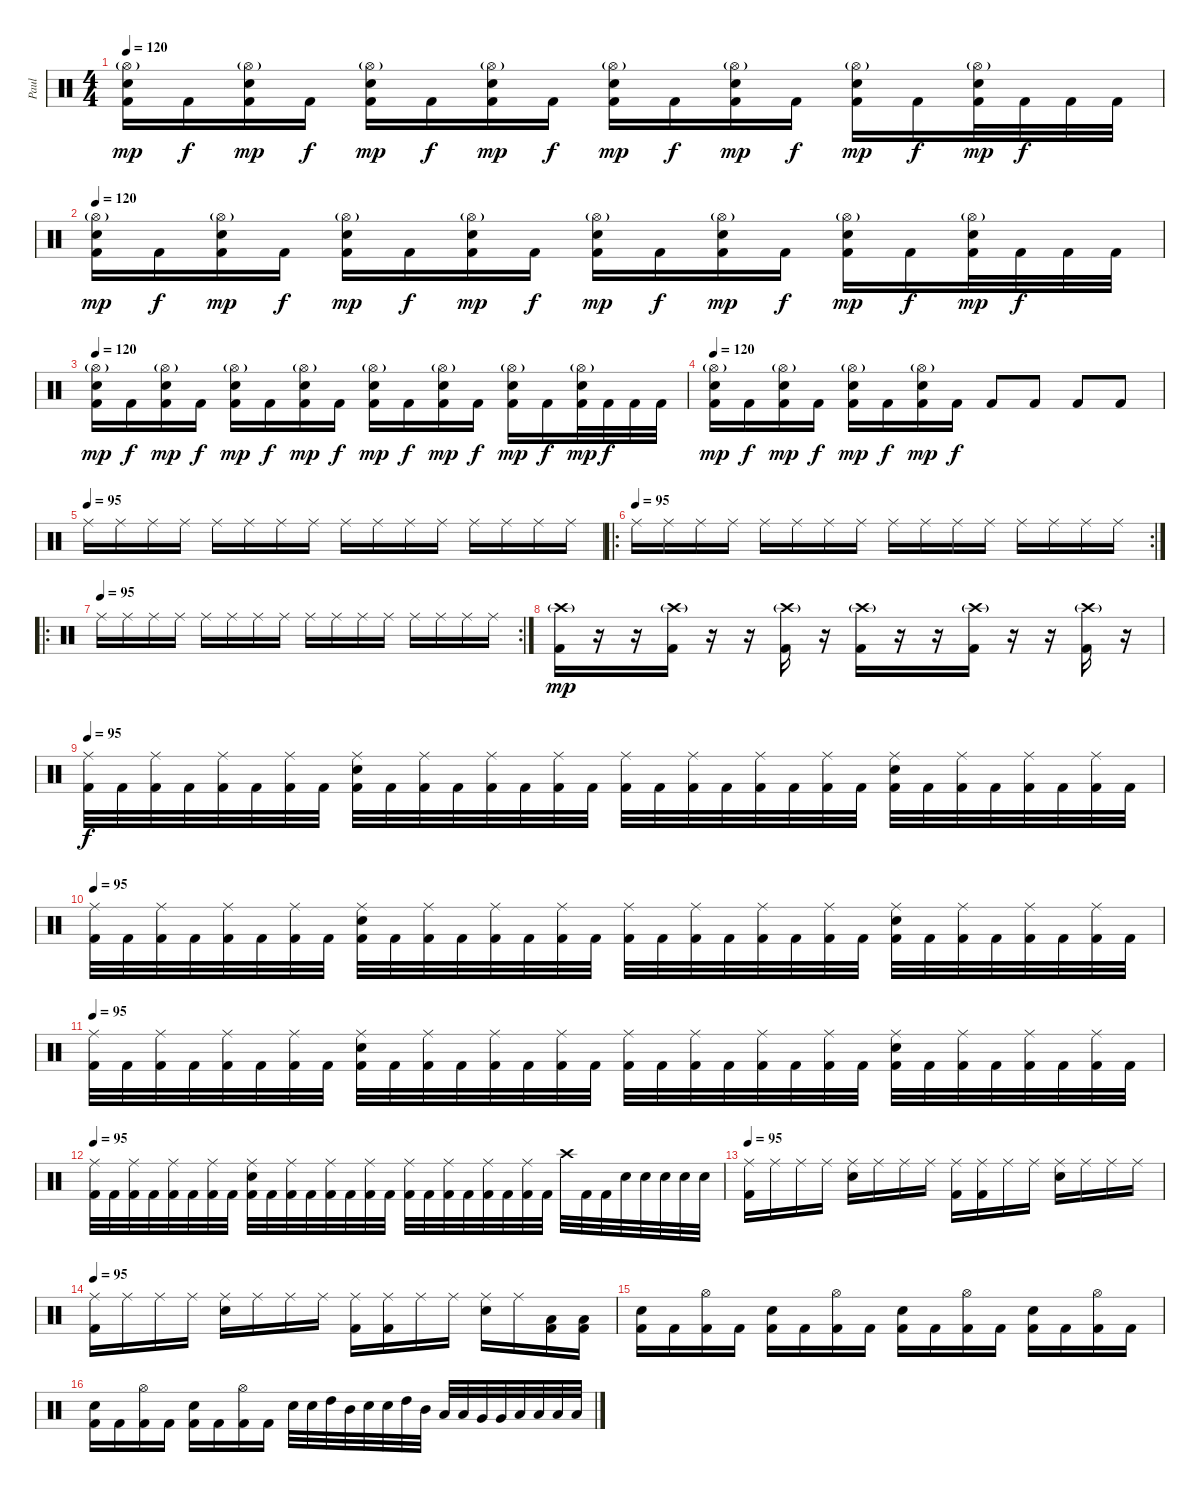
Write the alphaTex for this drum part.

\track ("Paul" "Paul") {instrument percussion}
\staff {score}
\articulation defaults
\ts (4 4)
\tempo 120
\clef neutral
\ks c
("Hi-Hat (open)"{g} "Electric Snare (hit)" "Kick (hit) 2").16{dy mp} "Kick (hit) 2".16{dy f} ("Hi-Hat (open)"{g} "Electric Snare (hit)" "Kick (hit) 2").16{dy mp} "Kick (hit) 2".16{dy f} ("Hi-Hat (open)"{g} "Electric Snare (hit)" "Kick (hit) 2").16{dy mp} "Kick (hit) 2".16{dy f} ("Hi-Hat (open)"{g} "Electric Snare (hit)" "Kick (hit) 2").16{dy mp} "Kick (hit) 2".16{dy f} ("Hi-Hat (open)"{g} "Electric Snare (hit)" "Kick (hit) 2").16{dy mp} "Kick (hit) 2".16{dy f} ("Hi-Hat (open)"{g} "Electric Snare (hit)" "Kick (hit) 2").16{dy mp} "Kick (hit) 2".16{dy f} ("Hi-Hat (open)"{g} "Electric Snare (hit)" "Kick (hit) 2").16{dy mp} "Kick (hit) 2".16{dy f} ("Hi-Hat (open)"{g} "Electric Snare (hit)" "Kick (hit) 2").32{dy mp} "Kick (hit) 2".32{dy f} "Kick (hit) 2".32 "Kick (hit) 2".32 |
\tempo 120
("Hi-Hat (open)"{g} "Electric Snare (hit)" "Kick (hit) 2").16{dy mp} "Kick (hit) 2".16{dy f} ("Hi-Hat (open)"{g} "Electric Snare (hit)" "Kick (hit) 2").16{dy mp} "Kick (hit) 2".16{dy f} ("Hi-Hat (open)"{g} "Electric Snare (hit)" "Kick (hit) 2").16{dy mp} "Kick (hit) 2".16{dy f} ("Hi-Hat (open)"{g} "Electric Snare (hit)" "Kick (hit) 2").16{dy mp} "Kick (hit) 2".16{dy f} ("Hi-Hat (open)"{g} "Electric Snare (hit)" "Kick (hit) 2").16{dy mp} "Kick (hit) 2".16{dy f} ("Hi-Hat (open)"{g} "Electric Snare (hit)" "Kick (hit) 2").16{dy mp} "Kick (hit) 2".16{dy f} ("Hi-Hat (open)"{g} "Electric Snare (hit)" "Kick (hit) 2").16{dy mp} "Kick (hit) 2".16{dy f} ("Hi-Hat (open)"{g} "Electric Snare (hit)" "Kick (hit) 2").32{dy mp} "Kick (hit) 2".32{dy f} "Kick (hit) 2".32 "Kick (hit) 2".32 |
\tempo 120
("Hi-Hat (open)"{g} "Electric Snare (hit)" "Kick (hit) 2").16{dy mp} "Kick (hit) 2".16{dy f} ("Hi-Hat (open)"{g} "Electric Snare (hit)" "Kick (hit) 2").16{dy mp} "Kick (hit) 2".16{dy f} ("Hi-Hat (open)"{g} "Electric Snare (hit)" "Kick (hit) 2").16{dy mp} "Kick (hit) 2".16{dy f} ("Hi-Hat (open)"{g} "Electric Snare (hit)" "Kick (hit) 2").16{dy mp} "Kick (hit) 2".16{dy f} ("Hi-Hat (open)"{g} "Electric Snare (hit)" "Kick (hit) 2").16{dy mp} "Kick (hit) 2".16{dy f} ("Hi-Hat (open)"{g} "Electric Snare (hit)" "Kick (hit) 2").16{dy mp} "Kick (hit) 2".16{dy f} ("Hi-Hat (open)"{g} "Electric Snare (hit)" "Kick (hit) 2").16{dy mp} "Kick (hit) 2".16{dy f} ("Hi-Hat (open)"{g} "Electric Snare (hit)" "Kick (hit) 2").32{dy mp} "Kick (hit) 2".32{dy f} "Kick (hit) 2".32 "Kick (hit) 2".32 |
\tempo 120
("Hi-Hat (open)"{g} "Electric Snare (hit)" "Kick (hit) 2").16{dy mp} "Kick (hit) 2".16{dy f} ("Hi-Hat (open)"{g} "Electric Snare (hit)" "Kick (hit) 2").16{dy mp} "Kick (hit) 2".16{dy f} ("Hi-Hat (open)"{g} "Electric Snare (hit)" "Kick (hit) 2").16{dy mp} "Kick (hit) 2".16{dy f} ("Hi-Hat (open)"{g} "Electric Snare (hit)" "Kick (hit) 2").16{dy mp} "Kick (hit) 2".16{dy f} "Kick (hit) 2".8 "Kick (hit) 2".8 "Kick (hit) 2".8 "Kick (hit) 2".8 |
\tempo (95)
"Ride (middle)".16 "Ride (middle)".16 "Ride (middle)".16 "Ride (middle)".16 "Ride (middle)".16 "Ride (middle)".16 "Ride (middle)".16 "Ride (middle)".16 "Ride (middle)".16 "Ride (middle)".16 "Ride (middle)".16 "Ride (middle)".16 "Ride (middle)".16 "Ride (middle)".16 "Ride (middle)".16 "Ride (middle)".16 |
\ro
\rc 2
\tempo (95)
"Ride (middle)".16 "Ride (middle)".16 "Ride (middle)".16 "Ride (middle)".16 "Ride (middle)".16 "Ride (middle)".16 "Ride (middle)".16 "Ride (middle)".16 "Ride (middle)".16 "Ride (middle)".16 "Ride (middle)".16 "Ride (middle)".16 "Ride (middle)".16 "Ride (middle)".16 "Ride (middle)".16 "Ride (middle)".16 |
\ro
\rc 2
\tempo (95)
"Ride (middle)".16 "Ride (middle)".16 "Ride (middle)".16 "Ride (middle)".16 "Ride (middle)".16 "Ride (middle)".16 "Ride (middle)".16 "Ride (middle)".16 "Ride (middle)".16 "Ride (middle)".16 "Ride (middle)".16 "Ride (middle)".16 "Ride (middle)".16 "Ride (middle)".16 "Ride (middle)".16 "Ride (middle)".16 |
("Crash high (hit)"{g} "Kick (hit) 2").16{dy mp} r.16 r.16 ("Crash high (hit)"{g} "Kick (hit) 2").16 r.16 r.16 ("Crash high (hit)"{g} "Kick (hit) 2").16 r.16 ("Crash high (hit)"{g} "Kick (hit) 2").16 r.16 r.16 ("Crash high (hit)"{g} "Kick (hit) 2").16 r.16 r.16 ("Crash high (hit)"{g} "Kick (hit) 2").16 r.16 |
\tempo 120
\tempo 95
("Ride (middle)" "Kick (hit) 2").32{dy f} "Kick (hit) 2".32 ("Ride (middle)" "Kick (hit) 2").32 "Kick (hit) 2".32 ("Ride (middle)" "Kick (hit) 2").32 "Kick (hit) 2".32 ("Ride (middle)" "Kick (hit) 2").32 "Kick (hit) 2".32 ("Electric Snare (hit)" "Ride (middle)" "Kick (hit) 2").32 "Kick (hit) 2".32 ("Ride (middle)" "Kick (hit) 2").32 "Kick (hit) 2".32 ("Ride (middle)" "Kick (hit) 2").32 "Kick (hit) 2".32 ("Ride (middle)" "Kick (hit) 2").32 "Kick (hit) 2".32 ("Ride (middle)" "Kick (hit) 2").32 "Kick (hit) 2".32 ("Ride (middle)" "Kick (hit) 2").32 "Kick (hit) 2".32 ("Ride (middle)" "Kick (hit) 2").32 "Kick (hit) 2".32 ("Ride (middle)" "Kick (hit) 2").32 "Kick (hit) 2".32 ("Electric Snare (hit)" "Ride (middle)" "Kick (hit) 2").32 "Kick (hit) 2".32 ("Ride (middle)" "Kick (hit) 2").32 "Kick (hit) 2".32 ("Ride (middle)" "Kick (hit) 2").32 "Kick (hit) 2".32 ("Ride (middle)" "Kick (hit) 2").32 "Kick (hit) 2".32 |
\tempo 120
\tempo 95
("Ride (middle)" "Kick (hit) 2").32 "Kick (hit) 2".32 ("Ride (middle)" "Kick (hit) 2").32 "Kick (hit) 2".32 ("Ride (middle)" "Kick (hit) 2").32 "Kick (hit) 2".32 ("Ride (middle)" "Kick (hit) 2").32 "Kick (hit) 2".32 ("Electric Snare (hit)" "Ride (middle)" "Kick (hit) 2").32 "Kick (hit) 2".32 ("Ride (middle)" "Kick (hit) 2").32 "Kick (hit) 2".32 ("Ride (middle)" "Kick (hit) 2").32 "Kick (hit) 2".32 ("Ride (middle)" "Kick (hit) 2").32 "Kick (hit) 2".32 ("Ride (middle)" "Kick (hit) 2").32 "Kick (hit) 2".32 ("Ride (middle)" "Kick (hit) 2").32 "Kick (hit) 2".32 ("Ride (middle)" "Kick (hit) 2").32 "Kick (hit) 2".32 ("Ride (middle)" "Kick (hit) 2").32 "Kick (hit) 2".32 ("Electric Snare (hit)" "Ride (middle)" "Kick (hit) 2").32 "Kick (hit) 2".32 ("Ride (middle)" "Kick (hit) 2").32 "Kick (hit) 2".32 ("Ride (middle)" "Kick (hit) 2").32 "Kick (hit) 2".32 ("Ride (middle)" "Kick (hit) 2").32 "Kick (hit) 2".32 |
\tempo 120
\tempo 95
("Ride (middle)" "Kick (hit) 2").32 "Kick (hit) 2".32 ("Ride (middle)" "Kick (hit) 2").32 "Kick (hit) 2".32 ("Ride (middle)" "Kick (hit) 2").32 "Kick (hit) 2".32 ("Ride (middle)" "Kick (hit) 2").32 "Kick (hit) 2".32 ("Electric Snare (hit)" "Ride (middle)" "Kick (hit) 2").32 "Kick (hit) 2".32 ("Ride (middle)" "Kick (hit) 2").32 "Kick (hit) 2".32 ("Ride (middle)" "Kick (hit) 2").32 "Kick (hit) 2".32 ("Ride (middle)" "Kick (hit) 2").32 "Kick (hit) 2".32 ("Ride (middle)" "Kick (hit) 2").32 "Kick (hit) 2".32 ("Ride (middle)" "Kick (hit) 2").32 "Kick (hit) 2".32 ("Ride (middle)" "Kick (hit) 2").32 "Kick (hit) 2".32 ("Ride (middle)" "Kick (hit) 2").32 "Kick (hit) 2".32 ("Electric Snare (hit)" "Ride (middle)" "Kick (hit) 2").32 "Kick (hit) 2".32 ("Ride (middle)" "Kick (hit) 2").32 "Kick (hit) 2".32 ("Ride (middle)" "Kick (hit) 2").32 "Kick (hit) 2".32 ("Ride (middle)" "Kick (hit) 2").32 "Kick (hit) 2".32 |
\tempo 120
\tempo 95
("Ride (middle)" "Kick (hit) 2").32 "Kick (hit) 2".32 ("Ride (middle)" "Kick (hit) 2").32 "Kick (hit) 2".32 ("Ride (middle)" "Kick (hit) 2").32 "Kick (hit) 2".32 ("Ride (middle)" "Kick (hit) 2").32 "Kick (hit) 2".32 ("Electric Snare (hit)" "Ride (middle)" "Kick (hit) 2").32 "Kick (hit) 2".32 ("Ride (middle)" "Kick (hit) 2").32 "Kick (hit) 2".32 ("Ride (middle)" "Kick (hit) 2").32 "Kick (hit) 2".32 ("Ride (middle)" "Kick (hit) 2").32 "Kick (hit) 2".32 ("Ride (middle)" "Kick (hit) 2").32 "Kick (hit) 2".32 ("Ride (middle)" "Kick (hit) 2").32 "Kick (hit) 2".32 ("Ride (middle)" "Kick (hit) 2").32 "Kick (hit) 2".32 ("Ride (middle)" "Kick (hit) 2").32 "Kick (hit) 2".32 "Crash high (hit)".32 "Kick (hit) 2".32 "Kick (hit) 2".32 "Electric Snare (hit)".32 "Electric Snare (hit)".32 "Electric Snare (hit)".32 "Electric Snare (hit)".32 "Electric Snare (hit)".32 |
\tempo 95
("Ride (middle)" "Kick (hit) 2").16{volume 15} "Ride (middle)".16 "Ride (middle)".16 "Ride (middle)".16 ("Ride (middle)" "Electric Snare (hit)").16 "Ride (middle)".16 "Ride (middle)".16 "Ride (middle)".16 ("Ride (middle)" "Kick (hit) 2").16 ("Ride (middle)" "Kick (hit) 2").16 "Ride (middle)".16 "Ride (middle)".16 ("Ride (middle)" "Electric Snare (hit)").16 "Ride (middle)".16 "Ride (middle)".16 "Ride (middle)".16 |
\tempo 95
("Ride (middle)" "Kick (hit) 2").16{volume 15} "Ride (middle)".16 "Ride (middle)".16 "Ride (middle)".16 ("Ride (middle)" "Electric Snare (hit)").16 "Ride (middle)".16 "Ride (middle)".16 "Ride (middle)".16 ("Ride (middle)" "Kick (hit) 2").16 ("Ride (middle)" "Kick (hit) 2").16 "Ride (middle)".16 "Ride (middle)".16 ("Ride (middle)" "Electric Snare (hit)").16 "Ride (middle)".16 ("Low Floor Tom (hit)" "Kick (hit) 2").16 ("Low Floor Tom (hit)" "Kick (hit) 2").16 |
("Electric Snare (hit)" "Kick (hit) 2").16 "Kick (hit) 2".16 ("Hi-Hat (open)" "Kick (hit) 2").16 "Kick (hit) 2".16 ("Electric Snare (hit)" "Kick (hit) 2").16 "Kick (hit) 2".16 ("Hi-Hat (open)" "Kick (hit) 2").16 "Kick (hit) 2".16 ("Electric Snare (hit)" "Kick (hit) 2").16 "Kick (hit) 2".16 ("Hi-Hat (open)" "Kick (hit) 2").16 "Kick (hit) 2".16 ("Electric Snare (hit)" "Kick (hit) 2").16 "Kick (hit) 2".16 ("Hi-Hat (open)" "Kick (hit) 2").16 "Kick (hit) 2".16 |
("Electric Snare (hit)" "Kick (hit) 2").16 "Kick (hit) 2".16 ("Hi-Hat (open)" "Kick (hit) 2").16 "Kick (hit) 2".16 ("Electric Snare (hit)" "Kick (hit) 2").16 "Kick (hit) 2".16 ("Hi-Hat (open)" "Kick (hit) 2").16 "Kick (hit) 2".16 "Electric Snare (hit)".32 "Electric Snare (hit)".32 "High Tom (hit)".32 "Mid Tom (hit)".32 "Electric Snare (hit)".32 "Electric Snare (hit)".32 "High Tom (hit)".32 "Mid Tom (hit)".32 "Low Tom (hit)".32 "Low Tom (hit)".32 "Very Low Tom (hit)".32 "Very Low Tom (hit)".32 "Low Floor Tom (hit)".32 "Low Floor Tom (hit)".32 "Low Floor Tom (hit)".32 "Low Floor Tom (hit)".32
